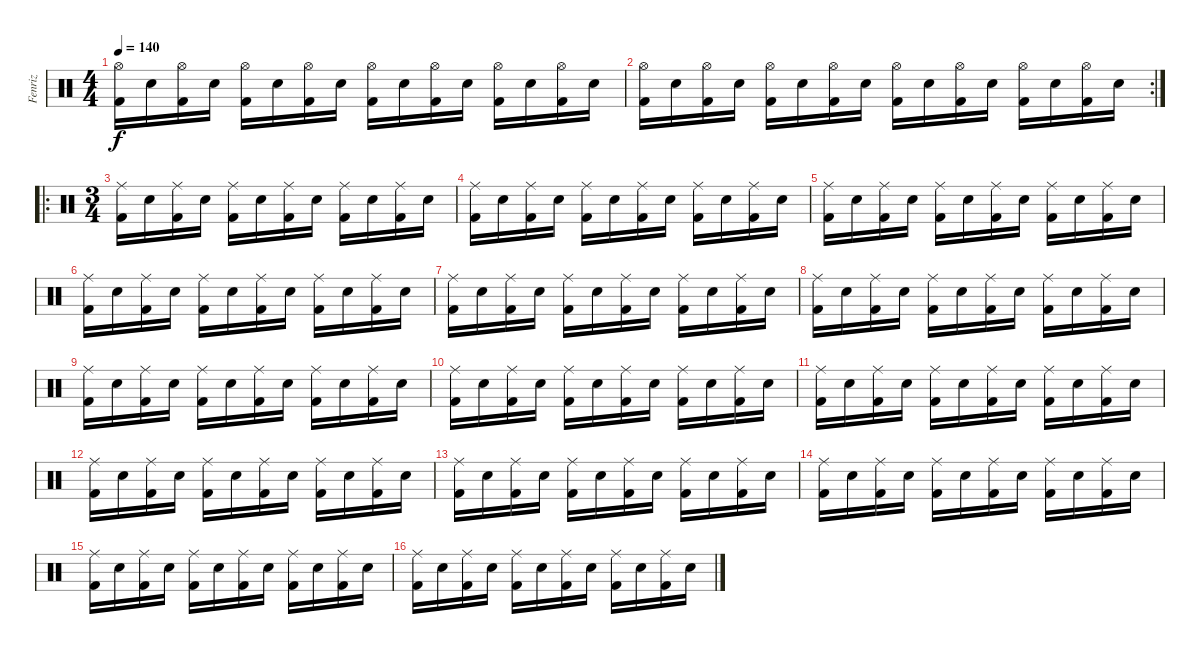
\track ("Fenriz" "Fenriz") {instrument percussion}
\staff {score}
\articulation defaults
\ts (4 4)
\tempo 140
\clef neutral
\ks c
("Hi-Hat (open)" "Kick (hit) 2").16{dy f} "Snare (hit) 2".16 ("Hi-Hat (open)" "Kick (hit) 2").16 "Snare (hit) 2".16 ("Hi-Hat (open)" "Kick (hit) 2").16 "Snare (hit) 2".16 ("Hi-Hat (open)" "Kick (hit) 2").16 "Snare (hit) 2".16 ("Hi-Hat (open)" "Kick (hit) 2").16 "Snare (hit) 2".16 ("Hi-Hat (open)" "Kick (hit) 2").16 "Snare (hit) 2".16 ("Hi-Hat (open)" "Kick (hit) 2").16 "Snare (hit) 2".16 ("Hi-Hat (open)" "Kick (hit) 2").16 "Snare (hit) 2".16 |
\rc 2
("Hi-Hat (open)" "Kick (hit) 2").16 "Snare (hit) 2".16 ("Hi-Hat (open)" "Kick (hit) 2").16 "Snare (hit) 2".16 ("Hi-Hat (open)" "Kick (hit) 2").16 "Snare (hit) 2".16 ("Hi-Hat (open)" "Kick (hit) 2").16 "Snare (hit) 2".16 ("Hi-Hat (open)" "Kick (hit) 2").16 "Snare (hit) 2".16 ("Hi-Hat (open)" "Kick (hit) 2").16 "Snare (hit) 2".16 ("Hi-Hat (open)" "Kick (hit) 2").16 "Snare (hit) 2".16 ("Hi-Hat (open)" "Kick (hit) 2").16 "Snare (hit) 2".16 |
\ro
\ts (3 4)
("Ride (middle)" "Kick (hit) 2").16 "Snare (hit) 2".16 ("Ride (middle)" "Kick (hit) 2").16 "Snare (hit) 2".16 ("Ride (middle)" "Kick (hit) 2").16 "Snare (hit) 2".16 ("Ride (middle)" "Kick (hit) 2").16 "Snare (hit) 2".16 ("Ride (middle)" "Kick (hit) 2").16 "Snare (hit) 2".16 ("Ride (middle)" "Kick (hit) 2").16 "Snare (hit) 2".16 |
("Ride (middle)" "Kick (hit) 2").16 "Snare (hit) 2".16 ("Ride (middle)" "Kick (hit) 2").16 "Snare (hit) 2".16 ("Ride (middle)" "Kick (hit) 2").16 "Snare (hit) 2".16 ("Ride (middle)" "Kick (hit) 2").16 "Snare (hit) 2".16 ("Ride (middle)" "Kick (hit) 2").16 "Snare (hit) 2".16 ("Ride (middle)" "Kick (hit) 2").16 "Snare (hit) 2".16 |
("Ride (middle)" "Kick (hit) 2").16 "Snare (hit) 2".16 ("Ride (middle)" "Kick (hit) 2").16 "Snare (hit) 2".16 ("Ride (middle)" "Kick (hit) 2").16 "Snare (hit) 2".16 ("Ride (middle)" "Kick (hit) 2").16 "Snare (hit) 2".16 ("Ride (middle)" "Kick (hit) 2").16 "Snare (hit) 2".16 ("Ride (middle)" "Kick (hit) 2").16 "Snare (hit) 2".16 |
("Ride (middle)" "Kick (hit) 2").16 "Snare (hit) 2".16 ("Ride (middle)" "Kick (hit) 2").16 "Snare (hit) 2".16 ("Ride (middle)" "Kick (hit) 2").16 "Snare (hit) 2".16 ("Ride (middle)" "Kick (hit) 2").16 "Snare (hit) 2".16 ("Ride (middle)" "Kick (hit) 2").16 "Snare (hit) 2".16 ("Ride (middle)" "Kick (hit) 2").16 "Snare (hit) 2".16 |
("Ride (middle)" "Kick (hit) 2").16 "Snare (hit) 2".16 ("Ride (middle)" "Kick (hit) 2").16 "Snare (hit) 2".16 ("Ride (middle)" "Kick (hit) 2").16 "Snare (hit) 2".16 ("Ride (middle)" "Kick (hit) 2").16 "Snare (hit) 2".16 ("Ride (middle)" "Kick (hit) 2").16 "Snare (hit) 2".16 ("Ride (middle)" "Kick (hit) 2").16 "Snare (hit) 2".16 |
("Ride (middle)" "Kick (hit) 2").16 "Snare (hit) 2".16 ("Ride (middle)" "Kick (hit) 2").16 "Snare (hit) 2".16 ("Ride (middle)" "Kick (hit) 2").16 "Snare (hit) 2".16 ("Ride (middle)" "Kick (hit) 2").16 "Snare (hit) 2".16 ("Ride (middle)" "Kick (hit) 2").16 "Snare (hit) 2".16 ("Ride (middle)" "Kick (hit) 2").16 "Snare (hit) 2".16 |
("Ride (middle)" "Kick (hit) 2").16 "Snare (hit) 2".16 ("Ride (middle)" "Kick (hit) 2").16 "Snare (hit) 2".16 ("Ride (middle)" "Kick (hit) 2").16 "Snare (hit) 2".16 ("Ride (middle)" "Kick (hit) 2").16 "Snare (hit) 2".16 ("Ride (middle)" "Kick (hit) 2").16 "Snare (hit) 2".16 ("Ride (middle)" "Kick (hit) 2").16 "Snare (hit) 2".16 |
("Ride (middle)" "Kick (hit) 2").16 "Snare (hit) 2".16 ("Ride (middle)" "Kick (hit) 2").16 "Snare (hit) 2".16 ("Ride (middle)" "Kick (hit) 2").16 "Snare (hit) 2".16 ("Ride (middle)" "Kick (hit) 2").16 "Snare (hit) 2".16 ("Ride (middle)" "Kick (hit) 2").16 "Snare (hit) 2".16 ("Ride (middle)" "Kick (hit) 2").16 "Snare (hit) 2".16 |
("Ride (middle)" "Kick (hit) 2").16 "Snare (hit) 2".16 ("Ride (middle)" "Kick (hit) 2").16 "Snare (hit) 2".16 ("Ride (middle)" "Kick (hit) 2").16 "Snare (hit) 2".16 ("Ride (middle)" "Kick (hit) 2").16 "Snare (hit) 2".16 ("Ride (middle)" "Kick (hit) 2").16 "Snare (hit) 2".16 ("Ride (middle)" "Kick (hit) 2").16 "Snare (hit) 2".16 |
("Ride (middle)" "Kick (hit) 2").16 "Snare (hit) 2".16 ("Ride (middle)" "Kick (hit) 2").16 "Snare (hit) 2".16 ("Ride (middle)" "Kick (hit) 2").16 "Snare (hit) 2".16 ("Ride (middle)" "Kick (hit) 2").16 "Snare (hit) 2".16 ("Ride (middle)" "Kick (hit) 2").16 "Snare (hit) 2".16 ("Ride (middle)" "Kick (hit) 2").16 "Snare (hit) 2".16 |
("Ride (middle)" "Kick (hit) 2").16 "Snare (hit) 2".16 ("Ride (middle)" "Kick (hit) 2").16 "Snare (hit) 2".16 ("Ride (middle)" "Kick (hit) 2").16 "Snare (hit) 2".16 ("Ride (middle)" "Kick (hit) 2").16 "Snare (hit) 2".16 ("Ride (middle)" "Kick (hit) 2").16 "Snare (hit) 2".16 ("Ride (middle)" "Kick (hit) 2").16 "Snare (hit) 2".16 |
("Ride (middle)" "Kick (hit) 2").16 "Snare (hit) 2".16 ("Ride (middle)" "Kick (hit) 2").16 "Snare (hit) 2".16 ("Ride (middle)" "Kick (hit) 2").16 "Snare (hit) 2".16 ("Ride (middle)" "Kick (hit) 2").16 "Snare (hit) 2".16 ("Ride (middle)" "Kick (hit) 2").16 "Snare (hit) 2".16 ("Ride (middle)" "Kick (hit) 2").16 "Snare (hit) 2".16 |
("Ride (middle)" "Kick (hit) 2").16 "Snare (hit) 2".16 ("Ride (middle)" "Kick (hit) 2").16 "Snare (hit) 2".16 ("Ride (middle)" "Kick (hit) 2").16 "Snare (hit) 2".16 ("Ride (middle)" "Kick (hit) 2").16 "Snare (hit) 2".16 ("Ride (middle)" "Kick (hit) 2").16 "Snare (hit) 2".16 ("Ride (middle)" "Kick (hit) 2").16 "Snare (hit) 2".16 |
("Ride (middle)" "Kick (hit) 2").16 "Snare (hit) 2".16 ("Ride (middle)" "Kick (hit) 2").16 "Snare (hit) 2".16 ("Ride (middle)" "Kick (hit) 2").16 "Snare (hit) 2".16 ("Ride (middle)" "Kick (hit) 2").16 "Snare (hit) 2".16 ("Ride (middle)" "Kick (hit) 2").16 "Snare (hit) 2".16 ("Ride (middle)" "Kick (hit) 2").16 "Snare (hit) 2".16
